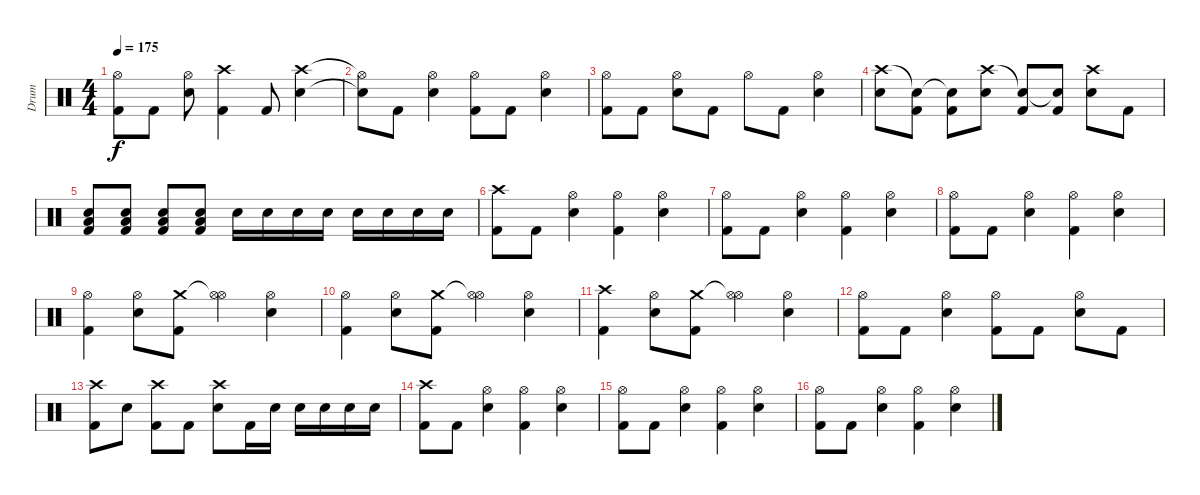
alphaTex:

\track ("Drum" "Drum") {instrument percussion}
\staff {score}
\articulation defaults
\ts (4 4)
\tempo 175
\clef neutral
\ks c
("Hi-Hat (open)" "Kick (hit) 2").8{dy f} "Kick (hit) 2".8 ("Hi-Hat (open)" "Electric Snare (hit)").8 ("Crash high (hit)" "Kick (hit) 2").4 "Kick (hit) 2".8 ("Crash high (hit)" "Electric Snare (hit)").4 |
("Hi-Hat (open)"{t} "Snare (hit)"{t}).8 "Kick (hit) 2".8 ("Hi-Hat (open)" "Electric Snare (hit)").4 ("Hi-Hat (open)" "Kick (hit) 2").8 "Kick (hit) 2".8 ("Hi-Hat (open)" "Electric Snare (hit)").4 |
("Hi-Hat (open)" "Kick (hit) 2").8 "Kick (hit) 2".8 ("Hi-Hat (open)" "Electric Snare (hit)").8 "Kick (hit) 2".8 "Hi-Hat (open)".8 "Kick (hit) 2".8 ("Hi-Hat (open)" "Electric Snare (hit)").4 |
("Crash high (hit)" "Electric Snare (hit)").8 ("Snare (hit)"{t} "Kick (hit) 2").8 ("Snare (hit)"{t} "Kick (hit) 2").8 ("Crash high (hit)" "Electric Snare (hit)").8 ("Snare (hit)"{t} "Kick (hit) 2").8 ("Snare (hit)"{t} "Kick (hit) 2").8 ("Crash high (hit)" "Electric Snare (hit)").8 "Kick (hit) 2".8 |
("Electric Snare (hit)" "Low Floor Tom (hit)" "Kick (hit) 2").8 ("Electric Snare (hit)" "Low Floor Tom (hit)" "Kick (hit) 2").8 ("Electric Snare (hit)" "Low Floor Tom (hit)" "Kick (hit) 2").8 ("Electric Snare (hit)" "Low Floor Tom (hit)" "Kick (hit) 2").8 "Electric Snare (hit)".16 "Electric Snare (hit)".16 "Electric Snare (hit)".16 "Electric Snare (hit)".16 "Electric Snare (hit)".16 "Electric Snare (hit)".16 "Electric Snare (hit)".16 "Electric Snare (hit)".16 |
("Crash high (hit)" "Kick (hit) 2").8 "Kick (hit) 2".8 ("Hi-Hat (open)" "Electric Snare (hit)").4 ("Hi-Hat (open)" "Kick (hit) 2").4 ("Hi-Hat (open)" "Electric Snare (hit)").4 |
("Hi-Hat (open)" "Kick (hit) 2").8 "Kick (hit) 2".8 ("Hi-Hat (open)" "Electric Snare (hit)").4 ("Hi-Hat (open)" "Kick (hit) 2").4 ("Hi-Hat (open)" "Electric Snare (hit)").4 |
("Hi-Hat (open)" "Kick (hit) 2").8 "Kick (hit) 2".8 ("Hi-Hat (open)" "Electric Snare (hit)").4 ("Hi-Hat (open)" "Kick (hit) 2").4 ("Hi-Hat (open)" "Electric Snare (hit)").4 |
("Hi-Hat (open)" "Kick (hit) 2").4 ("Hi-Hat (open)" "Electric Snare (hit)").8 ("Crash medium (hit)" "Kick (hit) 2").8 ("Hi-Hat (open)"{t} "Hi-Hat (open)").4 ("Hi-Hat (open)" "Electric Snare (hit)").4 |
("Hi-Hat (open)" "Kick (hit) 2").4 ("Hi-Hat (open)" "Electric Snare (hit)").8 ("Crash medium (hit)" "Kick (hit) 2").8 ("Hi-Hat (open)"{t} "Hi-Hat (open)").4 ("Hi-Hat (open)" "Electric Snare (hit)").4 |
("Crash high (hit)" "Kick (hit) 2").4 ("Hi-Hat (open)" "Electric Snare (hit)").8 ("Crash medium (hit)" "Kick (hit) 2").8 ("Hi-Hat (open)"{t} "Hi-Hat (open)").4 ("Hi-Hat (open)" "Electric Snare (hit)").4 |
("Hi-Hat (open)" "Kick (hit) 2").8 "Kick (hit) 2".8 ("Hi-Hat (open)" "Electric Snare (hit)").4 ("Hi-Hat (open)" "Kick (hit) 2").8 "Kick (hit) 2".8 ("Hi-Hat (open)" "Electric Snare (hit)").8 "Kick (hit) 2".8 |
("Crash high (hit)" "Kick (hit) 2").8 "Electric Snare (hit)".8 ("Crash high (hit)" "Kick (hit) 2").8 "Kick (hit) 2".8 ("Crash high (hit)" "Electric Snare (hit)").8 "Kick (hit) 2".16 "Electric Snare (hit)".16 "Electric Snare (hit)".16 "Electric Snare (hit)".16 "Electric Snare (hit)".16 "Electric Snare (hit)".16 |
("Crash high (hit)" "Kick (hit) 2").8 "Kick (hit) 2".8 ("Hi-Hat (open)" "Electric Snare (hit)").4 ("Hi-Hat (open)" "Kick (hit) 2").4 ("Hi-Hat (open)" "Electric Snare (hit)").4 |
("Hi-Hat (open)" "Kick (hit) 2").8 "Kick (hit) 2".8 ("Hi-Hat (open)" "Electric Snare (hit)").4 ("Hi-Hat (open)" "Kick (hit) 2").4 ("Hi-Hat (open)" "Electric Snare (hit)").4 |
("Hi-Hat (open)" "Kick (hit) 2").8 "Kick (hit) 2".8 ("Hi-Hat (open)" "Electric Snare (hit)").4 ("Hi-Hat (open)" "Kick (hit) 2").4 ("Hi-Hat (open)" "Electric Snare (hit)").4
